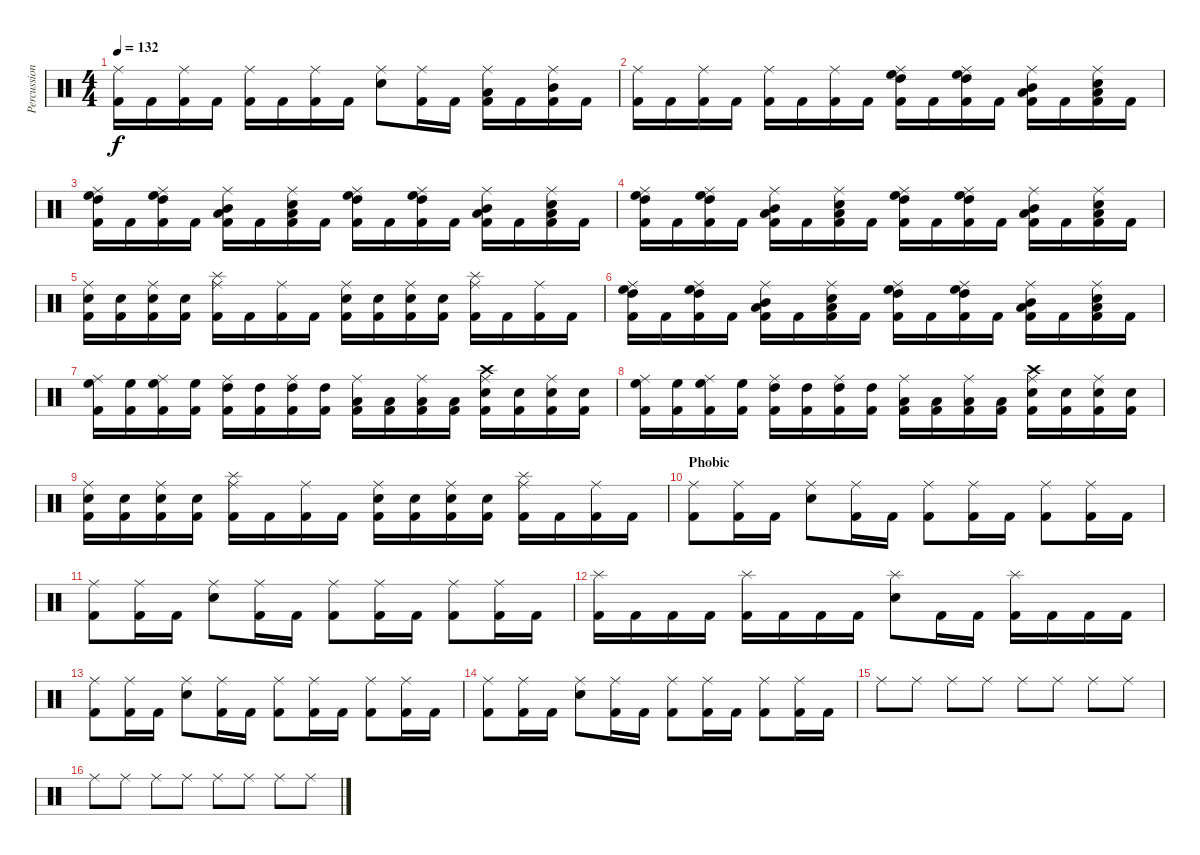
\track ("Percussion" "Percussion") {instrument percussion}
\staff {score}
\articulation defaults
\ts (4 4)
\tempo 132
\clef neutral
\ks c
("Ride (middle)" "Kick (hit) 2").16{dy f} "Kick (hit) 2".16 ("Ride (middle)" "Kick (hit) 2").16 "Kick (hit) 2".16 ("Ride (middle)" "Kick (hit) 2").16 "Kick (hit) 2".16 ("Ride (middle)" "Kick (hit) 2").16 "Kick (hit) 2".16 ("Ride (middle)" "Snare (hit) 2").8 ("Ride (middle)" "Kick (hit) 2").16 "Kick (hit) 2".16 ("Ride (middle)" "Low Tom (hit)" "Kick (hit) 2").16 "Kick (hit) 2".16 ("Ride (middle)" "Mid Tom (hit)" "Kick (hit) 2").16 "Kick (hit) 2".16 |
("Ride (middle)" "Kick (hit) 2").16 "Kick (hit) 2".16 ("Ride (middle)" "Kick (hit) 2").16 "Kick (hit) 2".16 ("Ride (middle)" "Kick (hit) 2").16 "Kick (hit) 2".16 ("Ride (middle)" "Kick (hit) 2").16 "Kick (hit) 2".16 ("Ride (middle)" "High Floor Tom (hit)" "High Tom (hit)" "Kick (hit) 2").16 "Kick (hit) 2".16 ("Ride (middle)" "High Floor Tom (hit)" "High Tom (hit)" "Kick (hit) 2").16 "Kick (hit) 2".16 ("Ride (middle)" "Mid Tom (hit)" "Low Tom (hit)" "Kick (hit) 2").16 "Kick (hit) 2".16 ("Ride (middle)" "Snare (hit) 2" "Low Tom (hit)" "Kick (hit) 2").16 "Kick (hit) 2".16 |
("Ride (middle)" "High Floor Tom (hit)" "High Tom (hit)" "Kick (hit) 2").16 "Kick (hit) 2".16 ("Ride (middle)" "High Floor Tom (hit)" "High Tom (hit)" "Kick (hit) 2").16 "Kick (hit) 2".16 ("Ride (middle)" "Mid Tom (hit)" "Low Tom (hit)" "Kick (hit) 2").16 "Kick (hit) 2".16 ("Ride (middle)" "Snare (hit) 2" "Low Tom (hit)" "Kick (hit) 2").16 "Kick (hit) 2".16 ("Ride (middle)" "High Floor Tom (hit)" "High Tom (hit)" "Kick (hit) 2").16 "Kick (hit) 2".16 ("Ride (middle)" "High Floor Tom (hit)" "High Tom (hit)" "Kick (hit) 2").16 "Kick (hit) 2".16 ("Ride (middle)" "Mid Tom (hit)" "Low Tom (hit)" "Kick (hit) 2").16 "Kick (hit) 2".16 ("Ride (middle)" "Snare (hit) 2" "Low Tom (hit)" "Kick (hit) 2").16 "Kick (hit) 2".16 |
("Ride (middle)" "High Floor Tom (hit)" "High Tom (hit)" "Kick (hit) 2").16 "Kick (hit) 2".16 ("Ride (middle)" "High Floor Tom (hit)" "High Tom (hit)" "Kick (hit) 2").16 "Kick (hit) 2".16 ("Ride (middle)" "Mid Tom (hit)" "Low Tom (hit)" "Kick (hit) 2").16 "Kick (hit) 2".16 ("Ride (middle)" "Snare (hit) 2" "Low Tom (hit)" "Kick (hit) 2").16 "Kick (hit) 2".16 ("Ride (middle)" "High Floor Tom (hit)" "High Tom (hit)" "Kick (hit) 2").16 "Kick (hit) 2".16 ("Ride (middle)" "High Floor Tom (hit)" "High Tom (hit)" "Kick (hit) 2").16 "Kick (hit) 2".16 ("Ride (middle)" "Mid Tom (hit)" "Low Tom (hit)" "Kick (hit) 2").16 "Kick (hit) 2".16 ("Ride (middle)" "Snare (hit) 2" "Low Tom (hit)" "Kick (hit) 2").16 "Kick (hit) 2".16 |
("Ride (middle)" "Snare (hit) 2" "Kick (hit) 2").16 ("Snare (hit) 2" "Kick (hit) 2").16 ("Ride (middle)" "Snare (hit) 2" "Kick (hit) 2").16 ("Snare (hit) 2" "Kick (hit) 2").16 ("Ride (middle)" "Splash (hit)" "Kick (hit) 2").16 "Kick (hit) 2".16 ("Ride (middle)" "Kick (hit) 2").16 "Kick (hit) 2".16 ("Ride (middle)" "Snare (hit) 2" "Kick (hit) 2").16 ("Snare (hit) 2" "Kick (hit) 2").16 ("Ride (middle)" "Snare (hit) 2" "Kick (hit) 2").16 ("Snare (hit) 2" "Kick (hit) 2").16 ("Ride (middle)" "Splash (hit)" "Kick (hit) 2").16 "Kick (hit) 2".16 ("Ride (middle)" "Kick (hit) 2").16 "Kick (hit) 2".16 |
("Ride (middle)" "High Floor Tom (hit)" "High Tom (hit)" "Kick (hit) 2").16 "Kick (hit) 2".16 ("Ride (middle)" "High Floor Tom (hit)" "High Tom (hit)" "Kick (hit) 2").16 "Kick (hit) 2".16 ("Ride (middle)" "Mid Tom (hit)" "Low Tom (hit)" "Kick (hit) 2").16 "Kick (hit) 2".16 ("Ride (middle)" "Snare (hit) 2" "Low Tom (hit)" "Kick (hit) 2").16 "Kick (hit) 2".16 ("Ride (middle)" "High Floor Tom (hit)" "High Tom (hit)" "Kick (hit) 2").16 "Kick (hit) 2".16 ("Ride (middle)" "High Floor Tom (hit)" "High Tom (hit)" "Kick (hit) 2").16 "Kick (hit) 2".16 ("Ride (middle)" "Mid Tom (hit)" "Low Tom (hit)" "Kick (hit) 2").16 "Kick (hit) 2".16 ("Ride (middle)" "Snare (hit) 2" "Low Tom (hit)" "Kick (hit) 2").16 "Kick (hit) 2".16 |
("Ride (middle)" "High Floor Tom (hit)" "Kick (hit) 2").16 ("High Floor Tom (hit)" "Kick (hit) 2").16 ("Ride (middle)" "High Floor Tom (hit)" "Kick (hit) 2").16 ("High Floor Tom (hit)" "Kick (hit) 2").16 ("Ride (middle)" "High Tom (hit)" "Kick (hit) 2").16 ("High Tom (hit)" "Kick (hit) 2").16 ("Ride (middle)" "High Tom (hit)" "Kick (hit) 2").16 ("High Tom (hit)" "Kick (hit) 2").16 ("Ride (middle)" "Low Tom (hit)" "Kick (hit) 2").16 ("Low Tom (hit)" "Kick (hit) 2").16 ("Ride (middle)" "Low Tom (hit)" "Kick (hit) 2").16 ("Low Tom (hit)" "Kick (hit) 2").16 ("Ride (middle)" "Crash high (hit)" "Snare (hit) 2" "Kick (hit) 2").16 ("Snare (hit) 2" "Kick (hit) 2").16 ("Ride (middle)" "Snare (hit) 2" "Kick (hit) 2").16 ("Snare (hit) 2" "Kick (hit) 2").16 |
("Ride (middle)" "High Floor Tom (hit)" "Kick (hit) 2").16 ("High Floor Tom (hit)" "Kick (hit) 2").16 ("Ride (middle)" "High Floor Tom (hit)" "Kick (hit) 2").16 ("High Floor Tom (hit)" "Kick (hit) 2").16 ("Ride (middle)" "High Tom (hit)" "Kick (hit) 2").16 ("High Tom (hit)" "Kick (hit) 2").16 ("Ride (middle)" "High Tom (hit)" "Kick (hit) 2").16 ("High Tom (hit)" "Kick (hit) 2").16 ("Ride (middle)" "Low Tom (hit)" "Kick (hit) 2").16 ("Low Tom (hit)" "Kick (hit) 2").16 ("Ride (middle)" "Low Tom (hit)" "Kick (hit) 2").16 ("Low Tom (hit)" "Kick (hit) 2").16 ("Ride (middle)" "Crash high (hit)" "Snare (hit) 2" "Kick (hit) 2").16 ("Snare (hit) 2" "Kick (hit) 2").16 ("Ride (middle)" "Snare (hit) 2" "Kick (hit) 2").16 ("Snare (hit) 2" "Kick (hit) 2").16 |
("Ride (middle)" "Snare (hit) 2" "Kick (hit) 2").16 ("Snare (hit) 2" "Kick (hit) 2").16 ("Ride (middle)" "Snare (hit) 2" "Kick (hit) 2").16 ("Snare (hit) 2" "Kick (hit) 2").16 ("Ride (middle)" "Splash (hit)" "Kick (hit) 2").16 "Kick (hit) 2".16 ("Ride (middle)" "Kick (hit) 2").16 "Kick (hit) 2".16 ("Ride (middle)" "Snare (hit) 2" "Kick (hit) 2").16 ("Snare (hit) 2" "Kick (hit) 2").16 ("Ride (middle)" "Snare (hit) 2" "Kick (hit) 2").16 ("Snare (hit) 2" "Kick (hit) 2").16 ("Ride (middle)" "Splash (hit)" "Kick (hit) 2").16 "Kick (hit) 2".16 ("Ride (middle)" "Kick (hit) 2").16 "Kick (hit) 2".16 |
\section ("" "Phobic")
("Ride (middle)" "Kick (hit) 2").8 ("Ride (middle)" "Kick (hit) 2").16 "Kick (hit) 2".16 ("Ride (middle)" "Snare (hit) 2").8 ("Ride (middle)" "Kick (hit) 2").16 "Kick (hit) 2".16 ("Ride (middle)" "Kick (hit) 2").8 ("Ride (middle)" "Kick (hit) 2").16 "Kick (hit) 2".16 ("Ride (middle)" "Kick (hit) 2").8 ("Ride (middle)" "Kick (hit) 2").16 "Kick (hit) 2".16 |
("Ride (middle)" "Kick (hit) 2").8 ("Ride (middle)" "Kick (hit) 2").16 "Kick (hit) 2".16 ("Ride (middle)" "Snare (hit) 2").8 ("Ride (middle)" "Kick (hit) 2").16 "Kick (hit) 2".16 ("Ride (middle)" "Kick (hit) 2").8 ("Ride (middle)" "Kick (hit) 2").16 "Kick (hit) 2".16 ("Ride (middle)" "Kick (hit) 2").8 ("Ride (middle)" "Kick (hit) 2").16 "Kick (hit) 2".16 |
("Splash (hit)" "Kick (hit) 2").16 "Kick (hit) 2".16 "Kick (hit) 2".16 "Kick (hit) 2".16 ("Splash (hit)" "Kick (hit) 2").16 "Kick (hit) 2".16 "Kick (hit) 2".16 "Kick (hit) 2".16 ("Splash (hit)" "Snare (hit) 2").8 "Kick (hit) 2".16 "Kick (hit) 2".16 ("Splash (hit)" "Kick (hit) 2").16 "Kick (hit) 2".16 "Kick (hit) 2".16 "Kick (hit) 2".16 |
("Ride (middle)" "Kick (hit) 2").8 ("Ride (middle)" "Kick (hit) 2").16 "Kick (hit) 2".16 ("Ride (middle)" "Snare (hit) 2").8 ("Ride (middle)" "Kick (hit) 2").16 "Kick (hit) 2".16 ("Ride (middle)" "Kick (hit) 2").8 ("Ride (middle)" "Kick (hit) 2").16 "Kick (hit) 2".16 ("Ride (middle)" "Kick (hit) 2").8 ("Ride (middle)" "Kick (hit) 2").16 "Kick (hit) 2".16 |
("Ride (middle)" "Kick (hit) 2").8 ("Ride (middle)" "Kick (hit) 2").16 "Kick (hit) 2".16 ("Ride (middle)" "Snare (hit) 2").8 ("Ride (middle)" "Kick (hit) 2").16 "Kick (hit) 2".16 ("Ride (middle)" "Kick (hit) 2").8 ("Ride (middle)" "Kick (hit) 2").16 "Kick (hit) 2".16 ("Ride (middle)" "Kick (hit) 2").8 ("Ride (middle)" "Kick (hit) 2").16 "Kick (hit) 2".16 |
"Ride (middle)".8 "Ride (middle)".8 "Ride (middle)".8 "Ride (middle)".8 "Ride (middle)".8 "Ride (middle)".8 "Ride (middle)".8 "Ride (middle)".8 |
"Ride (middle)".8 "Ride (middle)".8 "Ride (middle)".8 "Ride (middle)".8 "Ride (middle)".8 "Ride (middle)".8 "Ride (middle)".8 "Ride (middle)".8
